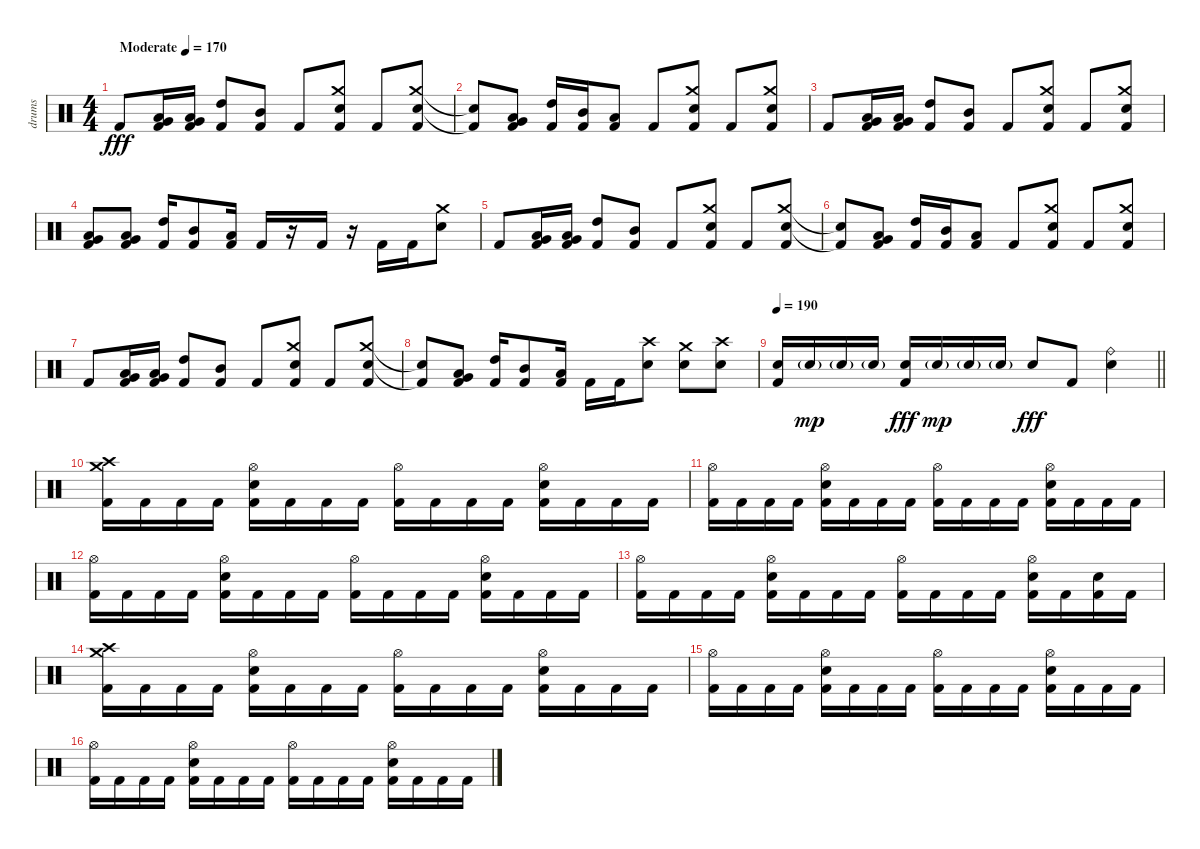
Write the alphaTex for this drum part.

\track ("drums" "drums") {instrument percussion}
\staff {score}
\articulation defaults
\ts (4 4)
\section ("" "")
\tempo (170 "Moderate")
\clef neutral
\ks c "Kick (hit) 2".8{dy fff volume 6}
("Very Low Tom (hit)" "Low Floor Tom (hit)" "Kick (hit) 2").16 ("Very Low Tom (hit)" "Low Floor Tom (hit)" "Kick (hit) 2").16 ("High Tom (hit)" "Kick (hit) 2").8 ("Mid Tom (hit)" "Kick (hit) 2").8 "Kick (hit) 2".8 ("Crash medium (hit)" "Electric Snare (hit)" "Kick (hit) 2").8 "Kick (hit) 2".8 ("Crash medium (hit)" "Electric Snare (hit)" "Kick (hit) 2").8 |
("Snare (hit)"{t} "Kick (hit) 2"{t}).8 ("Very Low Tom (hit)" "Low Floor Tom (hit)" "Kick (hit) 2").8 ("High Tom (hit)" "Kick (hit) 2").16 ("Mid Tom (hit)" "Kick (hit) 2").16 ("Low Tom (hit)" "Kick (hit) 2").8 "Kick (hit) 2".8 ("Crash medium (hit)" "Electric Snare (hit)" "Kick (hit) 2").8 "Kick (hit) 2".8 ("Crash medium (hit)" "Electric Snare (hit)" "Kick (hit) 2").8 |
"Kick (hit) 2".8 ("Very Low Tom (hit)" "Low Floor Tom (hit)" "Kick (hit) 2").16 ("Very Low Tom (hit)" "Low Floor Tom (hit)" "Kick (hit) 2").16 ("High Tom (hit)" "Kick (hit) 2").8 ("Mid Tom (hit)" "Kick (hit) 2").8 "Kick (hit) 2".8 ("Crash medium (hit)" "Electric Snare (hit)" "Kick (hit) 2").8 "Kick (hit) 2".8 ("Crash medium (hit)" "Electric Snare (hit)" "Kick (hit) 2").8 |
("Very Low Tom (hit)" "Low Floor Tom (hit)" "Kick (hit) 2").8 ("Very Low Tom (hit)" "Low Floor Tom (hit)" "Kick (hit) 2").8 ("High Tom (hit)" "Kick (hit) 2").16 ("Mid Tom (hit)" "Kick (hit) 2").8 ("Low Tom (hit)" "Kick (hit) 2").16 "Kick (hit) 2".16 r.16 "Kick (hit) 2".16 r.16 "Kick (hit) 2".16 "Kick (hit) 2".16 ("Crash medium (hit)" "Electric Snare (hit)").8 |
"Kick (hit) 2".8 ("Very Low Tom (hit)" "Low Floor Tom (hit)" "Kick (hit) 2").16 ("Very Low Tom (hit)" "Low Floor Tom (hit)" "Kick (hit) 2").16 ("High Tom (hit)" "Kick (hit) 2").8 ("Mid Tom (hit)" "Kick (hit) 2").8 "Kick (hit) 2".8 ("Crash medium (hit)" "Electric Snare (hit)" "Kick (hit) 2").8 "Kick (hit) 2".8 ("Crash medium (hit)" "Electric Snare (hit)" "Kick (hit) 2").8 |
("Snare (hit)"{t} "Kick (hit) 2"{t}).8 ("Very Low Tom (hit)" "Low Floor Tom (hit)" "Kick (hit) 2").8 ("High Tom (hit)" "Kick (hit) 2").16 ("Mid Tom (hit)" "Kick (hit) 2").16 ("Low Tom (hit)" "Kick (hit) 2").8 "Kick (hit) 2".8 ("Crash medium (hit)" "Electric Snare (hit)" "Kick (hit) 2").8 "Kick (hit) 2".8 ("Crash medium (hit)" "Electric Snare (hit)" "Kick (hit) 2").8 |
"Kick (hit) 2".8 ("Very Low Tom (hit)" "Low Floor Tom (hit)" "Kick (hit) 2").16 ("Very Low Tom (hit)" "Low Floor Tom (hit)" "Kick (hit) 2").16 ("High Tom (hit)" "Kick (hit) 2").8 ("Mid Tom (hit)" "Kick (hit) 2").8 "Kick (hit) 2".8 ("Crash medium (hit)" "Electric Snare (hit)" "Kick (hit) 2").8 "Kick (hit) 2".8 ("Crash medium (hit)" "Electric Snare (hit)" "Kick (hit) 2").8 |
("Snare (hit)"{t} "Kick (hit) 2"{t}).8 ("Very Low Tom (hit)" "Low Floor Tom (hit)" "Kick (hit) 2").8 ("High Tom (hit)" "Kick (hit) 2").16 ("Mid Tom (hit)" "Kick (hit) 2").8 ("Low Tom (hit)" "Kick (hit) 2").16 "Kick (hit) 2".16 "Kick (hit) 2".16 ("Crash high (hit)" "Electric Snare (hit)").8 ("Crash medium (hit)" "Electric Snare (hit)").8 ("Crash high (hit)" "Electric Snare (hit)").8 |
\tempo 190
\barLineRight lightlight
("Electric Snare (hit)" "Kick (hit) 2").16{volume 16} "Electric Snare (hit)"{g}.16{dy mp} "Electric Snare (hit)"{g}.16 "Electric Snare (hit)"{g}.16 ("Electric Snare (hit)" "Kick (hit) 2").16{dy fff} "Electric Snare (hit)"{g}.16{dy mp} "Electric Snare (hit)"{g}.16 "Electric Snare (hit)"{g}.16 "Electric Snare (hit)".8{dy fff} "Kick (hit) 2".8 ("Ride (bell)" "Electric Snare (hit)").4 |
\section ("" "")
("Crash high (hit)" "Crash medium (hit)" "Kick (hit) 2").16 "Kick (hit) 2".16 "Kick (hit) 2".16 "Kick (hit) 2".16 ("Hi-Hat (open)" "Electric Snare (hit)" "Kick (hit) 2").16 "Kick (hit) 2".16 "Kick (hit) 2".16 "Kick (hit) 2".16 ("Hi-Hat (open)" "Kick (hit) 2").16 "Kick (hit) 2".16 "Kick (hit) 2".16 "Kick (hit) 2".16 ("Hi-Hat (open)" "Electric Snare (hit)" "Kick (hit) 2").16 "Kick (hit) 2".16 "Kick (hit) 2".16 "Kick (hit) 2".16 |
("Hi-Hat (open)" "Kick (hit) 2").16 "Kick (hit) 2".16 "Kick (hit) 2".16 "Kick (hit) 2".16 ("Hi-Hat (open)" "Electric Snare (hit)" "Kick (hit) 2").16 "Kick (hit) 2".16 "Kick (hit) 2".16 "Kick (hit) 2".16 ("Hi-Hat (open)" "Kick (hit) 2").16 "Kick (hit) 2".16 "Kick (hit) 2".16 "Kick (hit) 2".16 ("Hi-Hat (open)" "Electric Snare (hit)" "Kick (hit) 2").16 "Kick (hit) 2".16 "Kick (hit) 2".16 "Kick (hit) 2".16 |
("Hi-Hat (open)" "Kick (hit) 2").16 "Kick (hit) 2".16 "Kick (hit) 2".16 "Kick (hit) 2".16 ("Hi-Hat (open)" "Electric Snare (hit)" "Kick (hit) 2").16 "Kick (hit) 2".16 "Kick (hit) 2".16 "Kick (hit) 2".16 ("Hi-Hat (open)" "Kick (hit) 2").16 "Kick (hit) 2".16 "Kick (hit) 2".16 "Kick (hit) 2".16 ("Hi-Hat (open)" "Electric Snare (hit)" "Kick (hit) 2").16 "Kick (hit) 2".16 "Kick (hit) 2".16 "Kick (hit) 2".16 |
("Hi-Hat (open)" "Kick (hit) 2").16 "Kick (hit) 2".16 "Kick (hit) 2".16 "Kick (hit) 2".16 ("Hi-Hat (open)" "Electric Snare (hit)" "Kick (hit) 2").16 "Kick (hit) 2".16 "Kick (hit) 2".16 "Kick (hit) 2".16 ("Hi-Hat (open)" "Kick (hit) 2").16 "Kick (hit) 2".16 "Kick (hit) 2".16 "Kick (hit) 2".16 ("Hi-Hat (open)" "Electric Snare (hit)" "Kick (hit) 2").16 "Kick (hit) 2".16 ("Electric Snare (hit)" "Kick (hit) 2").16 "Kick (hit) 2".16 |
("Crash high (hit)" "Crash medium (hit)" "Kick (hit) 2").16 "Kick (hit) 2".16 "Kick (hit) 2".16 "Kick (hit) 2".16 ("Hi-Hat (open)" "Electric Snare (hit)" "Kick (hit) 2").16 "Kick (hit) 2".16 "Kick (hit) 2".16 "Kick (hit) 2".16 ("Hi-Hat (open)" "Kick (hit) 2").16 "Kick (hit) 2".16 "Kick (hit) 2".16 "Kick (hit) 2".16 ("Hi-Hat (open)" "Electric Snare (hit)" "Kick (hit) 2").16 "Kick (hit) 2".16 "Kick (hit) 2".16 "Kick (hit) 2".16 |
("Hi-Hat (open)" "Kick (hit) 2").16 "Kick (hit) 2".16 "Kick (hit) 2".16 "Kick (hit) 2".16 ("Hi-Hat (open)" "Electric Snare (hit)" "Kick (hit) 2").16 "Kick (hit) 2".16 "Kick (hit) 2".16 "Kick (hit) 2".16 ("Hi-Hat (open)" "Kick (hit) 2").16 "Kick (hit) 2".16 "Kick (hit) 2".16 "Kick (hit) 2".16 ("Hi-Hat (open)" "Electric Snare (hit)" "Kick (hit) 2").16 "Kick (hit) 2".16 "Kick (hit) 2".16 "Kick (hit) 2".16 |
("Hi-Hat (open)" "Kick (hit) 2").16 "Kick (hit) 2".16 "Kick (hit) 2".16 "Kick (hit) 2".16 ("Hi-Hat (open)" "Electric Snare (hit)" "Kick (hit) 2").16 "Kick (hit) 2".16 "Kick (hit) 2".16 "Kick (hit) 2".16 ("Hi-Hat (open)" "Kick (hit) 2").16 "Kick (hit) 2".16 "Kick (hit) 2".16 "Kick (hit) 2".16 ("Hi-Hat (open)" "Electric Snare (hit)" "Kick (hit) 2").16 "Kick (hit) 2".16 "Kick (hit) 2".16 "Kick (hit) 2".16
